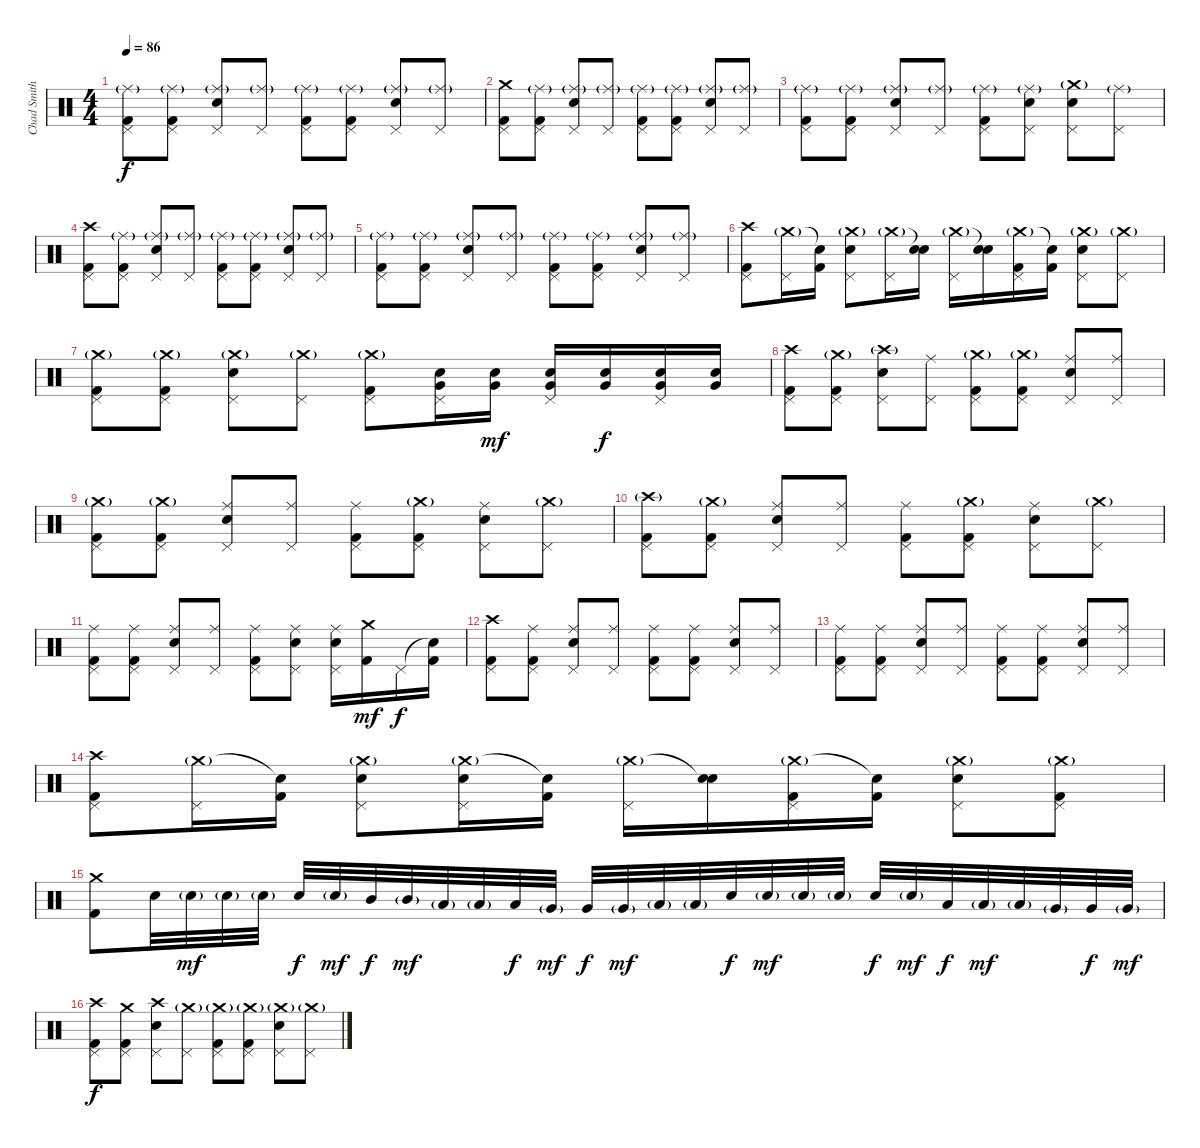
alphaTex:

\track ("Chad Smith" "Chad Smith") {instrument percussion}
\staff {score}
\articulation defaults
\ts (4 4)
\tempo 86
\clef neutral
\ks c
("Ride (middle)"{g} "Pedal Hi-Hat (hit)" "Kick (hit) 2").8{dy f} ("Ride (middle)"{g} "Pedal Hi-Hat (hit)" "Kick (hit) 2").8 ("Ride (middle)"{g} "Pedal Hi-Hat (hit)" "Electric Snare (hit)").8 ("Ride (middle)"{g} "Pedal Hi-Hat (hit)").8 ("Ride (middle)"{g} "Pedal Hi-Hat (hit)" "Kick (hit) 2").8 ("Ride (middle)"{g} "Pedal Hi-Hat (hit)" "Kick (hit) 2").8 ("Ride (middle)"{g} "Pedal Hi-Hat (hit)" "Electric Snare (hit)").8 ("Ride (middle)"{g} "Pedal Hi-Hat (hit)").8 |
("Crash medium (hit)" "Pedal Hi-Hat (hit)" "Kick (hit) 2").8 ("Ride (middle)"{g} "Pedal Hi-Hat (hit)" "Kick (hit) 2").8 ("Ride (middle)"{g} "Pedal Hi-Hat (hit)" "Electric Snare (hit)").8 ("Ride (middle)"{g} "Pedal Hi-Hat (hit)").8 ("Ride (middle)"{g} "Pedal Hi-Hat (hit)" "Kick (hit) 2").8 ("Ride (middle)"{g} "Pedal Hi-Hat (hit)" "Kick (hit) 2").8 ("Ride (middle)"{g} "Pedal Hi-Hat (hit)" "Electric Snare (hit)").8 ("Ride (middle)"{g} "Pedal Hi-Hat (hit)").8 |
("Ride (middle)"{g} "Pedal Hi-Hat (hit)" "Kick (hit) 2").8 ("Ride (middle)"{g} "Pedal Hi-Hat (hit)" "Kick (hit) 2").8 ("Ride (middle)"{g} "Pedal Hi-Hat (hit)" "Electric Snare (hit)").8 ("Ride (middle)"{g} "Pedal Hi-Hat (hit)").8 ("Ride (middle)"{g} "Pedal Hi-Hat (hit)" "Kick (hit) 2").8 ("Ride (middle)"{g} "Pedal Hi-Hat (hit)" "Electric Snare (hit)").8 ("Crash medium (hit)"{g} "Pedal Hi-Hat (hit)" "Electric Snare (hit)").8 ("Ride (middle)"{g} "Pedal Hi-Hat (hit)").8 |
("Crash high (hit)" "Pedal Hi-Hat (hit)" "Kick (hit) 2").8 ("Ride (middle)"{g} "Pedal Hi-Hat (hit)" "Kick (hit) 2").8 ("Ride (middle)"{g} "Pedal Hi-Hat (hit)" "Electric Snare (hit)").8 ("Ride (middle)"{g} "Pedal Hi-Hat (hit)").8 ("Ride (middle)"{g} "Pedal Hi-Hat (hit)" "Kick (hit) 2").8 ("Ride (middle)"{g} "Pedal Hi-Hat (hit)" "Kick (hit) 2").8 ("Ride (middle)"{g} "Pedal Hi-Hat (hit)" "Electric Snare (hit)").8 ("Ride (middle)"{g} "Pedal Hi-Hat (hit)").8 |
("Ride (middle)"{g} "Pedal Hi-Hat (hit)" "Kick (hit) 2").8 ("Ride (middle)"{g} "Pedal Hi-Hat (hit)" "Kick (hit) 2").8 ("Ride (middle)"{g} "Pedal Hi-Hat (hit)" "Electric Snare (hit)").8 ("Ride (middle)"{g} "Pedal Hi-Hat (hit)").8 ("Ride (middle)"{g} "Pedal Hi-Hat (hit)" "Kick (hit) 2").8 ("Ride (middle)"{g} "Pedal Hi-Hat (hit)" "Kick (hit) 2").8 ("Ride (middle)"{g} "Pedal Hi-Hat (hit)" "Electric Snare (hit)").8 ("Ride (middle)"{g} "Pedal Hi-Hat (hit)").8 |
("Crash high (hit)" "Pedal Hi-Hat (hit)" "Kick (hit) 2").8 ("Crash medium (hit)"{g} "Pedal Hi-Hat (hit)").16 ("Snare (hit)"{t} "Kick (hit) 2").16 ("Crash medium (hit)"{g} "Pedal Hi-Hat (hit)" "Electric Snare (hit)").8 ("Crash medium (hit)"{g} "Pedal Hi-Hat (hit)").16 ("Snare (hit)"{t} "Electric Snare (hit)").16 ("Crash medium (hit)"{g} "Pedal Hi-Hat (hit)").16 ("Snare (hit)"{t} "Electric Snare (hit)").16 ("Crash medium (hit)"{g} "Pedal Hi-Hat (hit)" "Kick (hit) 2").16 ("Snare (hit)"{t} "Kick (hit) 2").16 ("Crash medium (hit)"{g} "Pedal Hi-Hat (hit)" "Electric Snare (hit)").8 ("Crash medium (hit)"{g} "Pedal Hi-Hat (hit)").8 |
("Crash medium (hit)"{g} "Pedal Hi-Hat (hit)" "Kick (hit) 2").8 ("Crash medium (hit)"{g} "Pedal Hi-Hat (hit)" "Kick (hit) 2").8 ("Crash medium (hit)"{g} "Pedal Hi-Hat (hit)" "Electric Snare (hit)").8 ("Crash medium (hit)"{g} "Pedal Hi-Hat (hit)").8 ("Crash medium (hit)"{g} "Pedal Hi-Hat (hit)" "Kick (hit) 2").8 ("Pedal Hi-Hat (hit)" "Electric Snare (hit)" "Very Low Tom (hit)").16 ("Electric Snare (hit)" "Very Low Tom (hit)").16{dy mf} ("Pedal Hi-Hat (hit)" "Electric Snare (hit)" "Very Low Tom (hit)").16 ("Electric Snare (hit)" "Very Low Tom (hit)").16{dy f} ("Pedal Hi-Hat (hit)" "Electric Snare (hit)" "Very Low Tom (hit)").16 ("Electric Snare (hit)" "Very Low Tom (hit)").16 |
("Crash high (hit)" "Pedal Hi-Hat (hit)" "Kick (hit) 2").8 ("Crash medium (hit)"{g} "Pedal Hi-Hat (hit)" "Kick (hit) 2").8 ("Crash high (hit)"{g} "Pedal Hi-Hat (hit)" "Electric Snare (hit)").8 ("Ride (middle)" "Pedal Hi-Hat (hit)").8 ("Crash medium (hit)"{g} "Pedal Hi-Hat (hit)" "Kick (hit) 2").8 ("Crash medium (hit)"{g} "Pedal Hi-Hat (hit)" "Kick (hit) 2").8 ("Ride (middle)" "Pedal Hi-Hat (hit)" "Electric Snare (hit)").8 ("Ride (middle)" "Pedal Hi-Hat (hit)").8 |
("Crash medium (hit)"{g} "Pedal Hi-Hat (hit)" "Kick (hit) 2").8 ("Crash medium (hit)"{g} "Pedal Hi-Hat (hit)" "Kick (hit) 2").8 ("Ride (middle)" "Pedal Hi-Hat (hit)" "Electric Snare (hit)").8 ("Ride (middle)" "Pedal Hi-Hat (hit)").8 ("Ride (middle)" "Pedal Hi-Hat (hit)" "Kick (hit) 2").8 ("Crash medium (hit)"{g} "Pedal Hi-Hat (hit)" "Kick (hit) 2").8 ("Ride (middle)" "Pedal Hi-Hat (hit)" "Electric Snare (hit)").8 ("Crash medium (hit)"{g} "Pedal Hi-Hat (hit)").8 |
("Crash high (hit)"{g} "Pedal Hi-Hat (hit)" "Kick (hit) 2").8 ("Crash medium (hit)"{g} "Pedal Hi-Hat (hit)" "Kick (hit) 2").8 ("Ride (middle)" "Pedal Hi-Hat (hit)" "Electric Snare (hit)").8 ("Ride (middle)" "Pedal Hi-Hat (hit)").8 ("Ride (middle)" "Pedal Hi-Hat (hit)" "Kick (hit) 2").8 ("Crash medium (hit)"{g} "Pedal Hi-Hat (hit)" "Kick (hit) 2").8 ("Ride (middle)" "Pedal Hi-Hat (hit)" "Electric Snare (hit)").8 ("Crash medium (hit)"{g} "Pedal Hi-Hat (hit)").8 |
("Ride (middle)" "Pedal Hi-Hat (hit)" "Kick (hit) 2").8 ("Ride (middle)" "Pedal Hi-Hat (hit)" "Kick (hit) 2").8 ("Ride (middle)" "Pedal Hi-Hat (hit)" "Electric Snare (hit)").8 ("Ride (middle)" "Pedal Hi-Hat (hit)").8 ("Ride (middle)" "Pedal Hi-Hat (hit)" "Kick (hit) 2").8 ("Ride (middle)" "Pedal Hi-Hat (hit)" "Electric Snare (hit)").8 ("Ride (middle)" "Pedal Hi-Hat (hit)" "Electric Snare (hit)").16 ("Crash medium (hit)" "Kick (hit) 2").16{dy mf} "Pedal Hi-Hat (hit)".16{dy f} ("Snare (hit)"{t} "Kick (hit) 2").16 |
("Crash high (hit)" "Pedal Hi-Hat (hit)" "Kick (hit) 2").8 ("Ride (middle)" "Pedal Hi-Hat (hit)" "Kick (hit) 2").8 ("Ride (middle)" "Pedal Hi-Hat (hit)" "Electric Snare (hit)").8 ("Ride (middle)" "Pedal Hi-Hat (hit)").8 ("Ride (middle)" "Pedal Hi-Hat (hit)" "Kick (hit) 2").8 ("Ride (middle)" "Pedal Hi-Hat (hit)" "Kick (hit) 2").8 ("Ride (middle)" "Pedal Hi-Hat (hit)" "Electric Snare (hit)").8 ("Ride (middle)" "Pedal Hi-Hat (hit)").8 |
("Ride (middle)" "Pedal Hi-Hat (hit)" "Kick (hit) 2").8 ("Ride (middle)" "Pedal Hi-Hat (hit)" "Kick (hit) 2").8 ("Ride (middle)" "Pedal Hi-Hat (hit)" "Electric Snare (hit)").8 ("Ride (middle)" "Pedal Hi-Hat (hit)").8 ("Ride (middle)" "Pedal Hi-Hat (hit)" "Kick (hit) 2").8 ("Ride (middle)" "Pedal Hi-Hat (hit)" "Kick (hit) 2").8 ("Ride (middle)" "Pedal Hi-Hat (hit)" "Electric Snare (hit)").8 ("Ride (middle)" "Pedal Hi-Hat (hit)").8 |
("Crash high (hit)" "Pedal Hi-Hat (hit)" "Kick (hit) 2").8 ("Crash medium (hit)"{g} "Pedal Hi-Hat (hit)").16 ("Snare (hit)"{t} "Kick (hit) 2").16 ("Crash medium (hit)"{g} "Pedal Hi-Hat (hit)" "Electric Snare (hit)").8 ("Crash medium (hit)"{g} "Pedal Hi-Hat (hit)" "Electric Snare (hit)").16 ("Snare (hit)"{t} "Kick (hit) 2").16 ("Crash medium (hit)"{g} "Pedal Hi-Hat (hit)").16 ("Snare (hit)"{t} "Electric Snare (hit)").16 ("Crash medium (hit)"{g} "Pedal Hi-Hat (hit)" "Kick (hit) 2").16 ("Snare (hit)"{t} "Kick (hit) 2").16 ("Crash medium (hit)"{g} "Pedal Hi-Hat (hit)" "Electric Snare (hit)").8 ("Crash medium (hit)"{g} "Pedal Hi-Hat (hit)" "Kick (hit) 2").8 |
("Crash medium (hit)" "Kick (hit) 2").8 "Electric Snare (hit)".32 "Electric Snare (hit)"{g}.32{dy mf} "Electric Snare (hit)"{g}.32 "Electric Snare (hit)"{g}.32 "Electric Snare (hit)".32{dy f} "Electric Snare (hit)"{g}.32{dy mf} "Mid Tom (hit)".32{dy f} "Mid Tom (hit)"{g}.32{dy mf} "Low Tom (hit)"{g}.32 "Low Tom (hit)"{g}.32 "Low Tom (hit)".32{dy f} "Very Low Tom (hit)"{g}.32{dy mf} "Very Low Tom (hit)".32{dy f} "Very Low Tom (hit)"{g}.32{dy mf} "Low Floor Tom (hit)"{g}.32 "Low Floor Tom (hit)"{g}.32 "Electric Snare (hit)".32{dy f} "Electric Snare (hit)"{g}.32{dy mf} "Electric Snare (hit)"{g}.32 "Electric Snare (hit)"{g}.32 "Electric Snare (hit)".32{dy f} "Electric Snare (hit)"{g}.32{dy mf} "Low Tom (hit)".32{dy f} "Low Tom (hit)"{g}.32{dy mf} "Low Tom (hit)"{g}.32 "Very Low Tom (hit)"{g}.32 "Very Low Tom (hit)".32{dy f} "Very Low Tom (hit)"{g}.32{dy mf} |
("Crash high (hit)" "Pedal Hi-Hat (hit)" "Kick (hit) 2").8{dy f} ("Crash medium (hit)" "Pedal Hi-Hat (hit)" "Kick (hit) 2").8 ("Crash high (hit)" "Pedal Hi-Hat (hit)" "Electric Snare (hit)").8 ("Crash medium (hit)"{g} "Pedal Hi-Hat (hit)").8 ("Crash medium (hit)"{g} "Pedal Hi-Hat (hit)" "Kick (hit) 2").8 ("Crash medium (hit)"{g} "Pedal Hi-Hat (hit)" "Kick (hit) 2").8 ("Crash medium (hit)"{g} "Pedal Hi-Hat (hit)" "Electric Snare (hit)").8 ("Crash medium (hit)"{g} "Pedal Hi-Hat (hit)").8
